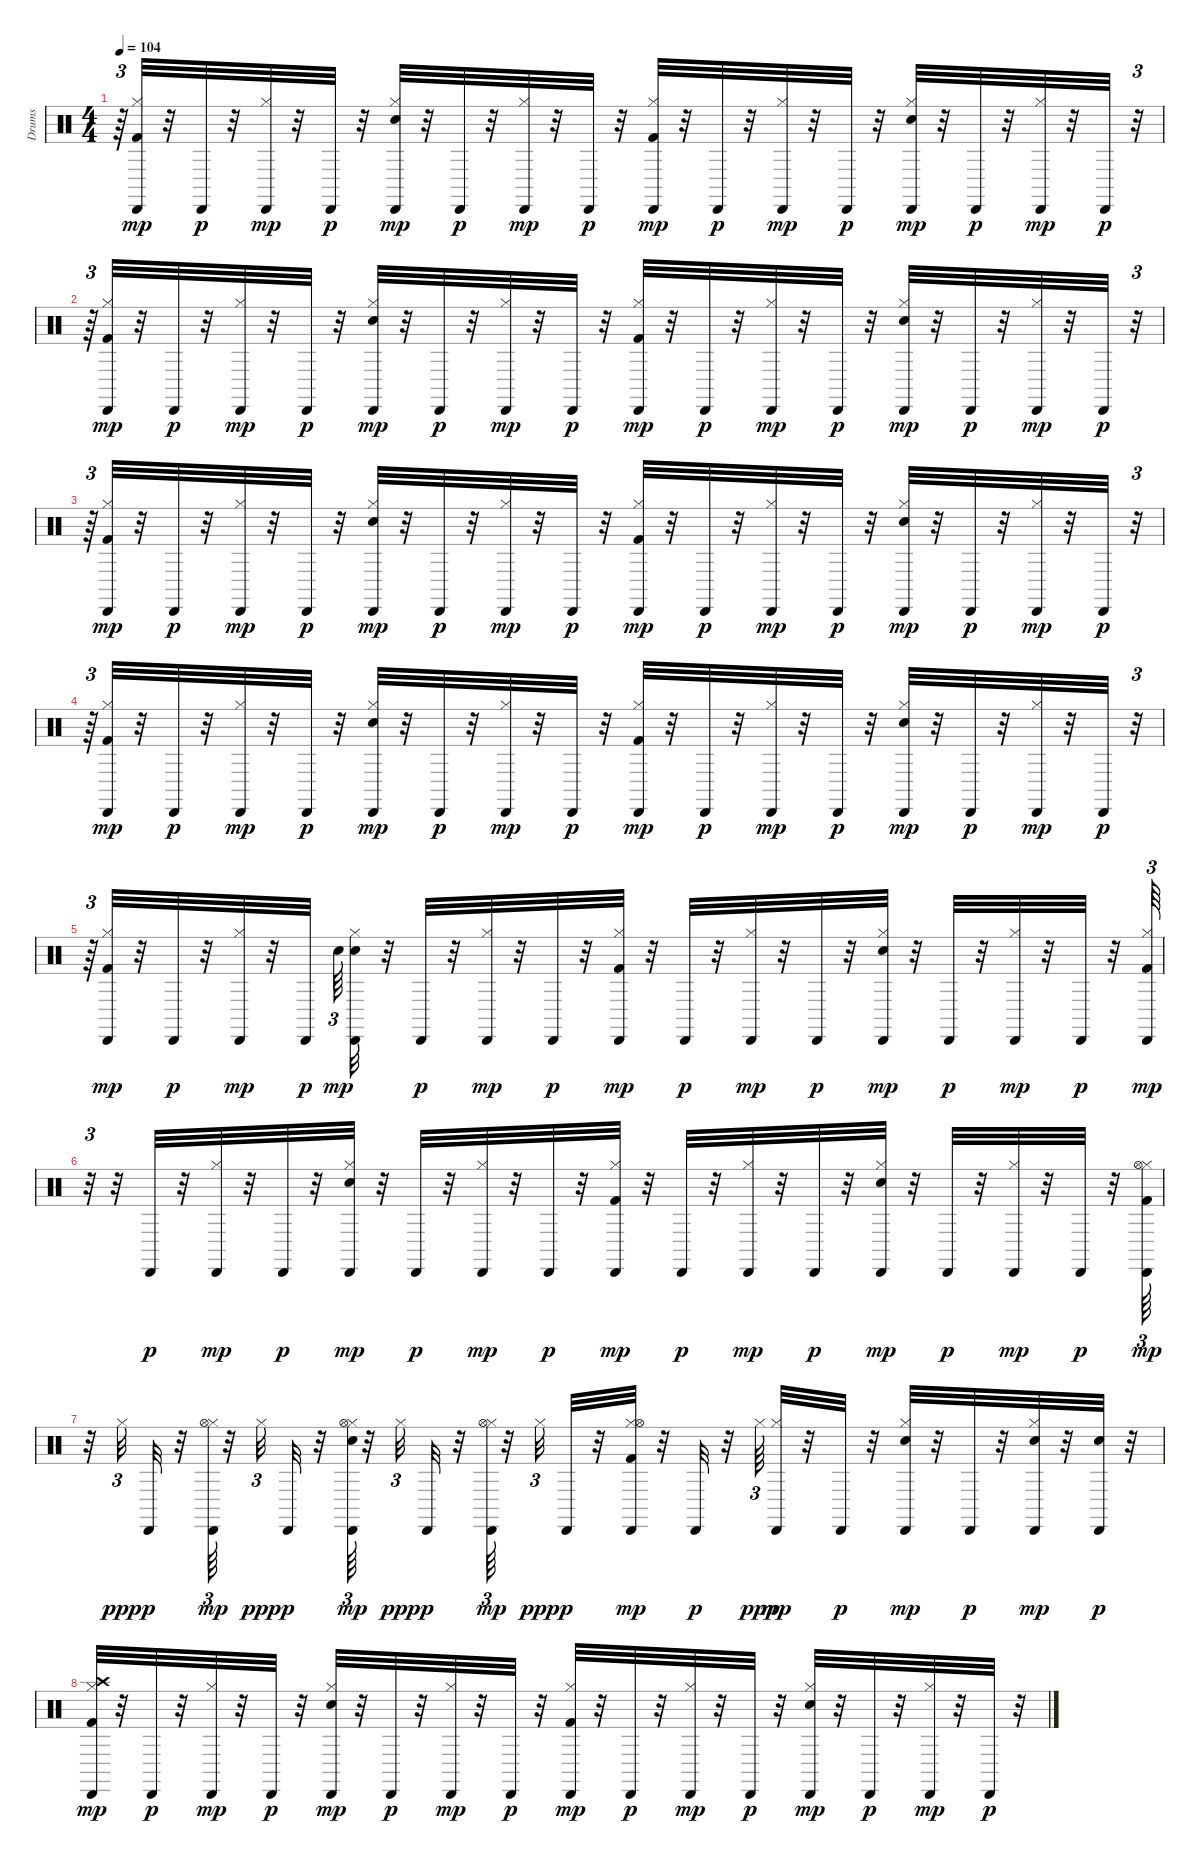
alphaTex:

\track ("Drums               " "Drums     ") {instrument percussion}
\staff {score}
\articulation defaults
\ts (4 4)
\tempo 104
\clef neutral
\ks c
r.64{tu (3 2) dy p} ("Kick (hit) 2" "Hi-Hat (closed)" "Cabasa (hit)").32{dy mp} r.32 "Cabasa (hit)".32{dy p} r.32 ("Hi-Hat (closed)" "Cabasa (hit)").32{dy mp} r.32 "Cabasa (hit)".32{dy p} r.32 ("Snare (hit) 2" "Hi-Hat (closed)" "Cabasa (hit)").32{dy mp} r.32 "Cabasa (hit)".32{dy p} r.32 ("Hi-Hat (closed)" "Cabasa (hit)").32{dy mp} r.32 "Cabasa (hit)".32{dy p} r.32 ("Kick (hit) 2" "Hi-Hat (closed)" "Cabasa (hit)").32{dy mp} r.32 "Cabasa (hit)".32{dy p} r.32 ("Hi-Hat (closed)" "Cabasa (hit)").32{dy mp} r.32 "Cabasa (hit)".32{dy p} r.32 ("Snare (hit) 2" "Hi-Hat (closed)" "Cabasa (hit)").32{dy mp} r.32 "Cabasa (hit)".32{dy p} r.32 ("Hi-Hat (closed)" "Cabasa (hit)").32{dy mp} r.32 "Cabasa (hit)".32{dy p} r.32{tu (3 2)} |
r.64{tu (3 2)} ("Kick (hit) 2" "Hi-Hat (closed)" "Cabasa (hit)").32{dy mp} r.32 "Cabasa (hit)".32{dy p} r.32 ("Hi-Hat (closed)" "Cabasa (hit)").32{dy mp} r.32 "Cabasa (hit)".32{dy p} r.32 ("Snare (hit) 2" "Hi-Hat (closed)" "Cabasa (hit)").32{dy mp} r.32 "Cabasa (hit)".32{dy p} r.32 ("Hi-Hat (closed)" "Cabasa (hit)").32{dy mp} r.32 "Cabasa (hit)".32{dy p} r.32 ("Kick (hit) 2" "Hi-Hat (closed)" "Cabasa (hit)").32{dy mp} r.32 "Cabasa (hit)".32{dy p} r.32 ("Hi-Hat (closed)" "Cabasa (hit)").32{dy mp} r.32 "Cabasa (hit)".32{dy p} r.32 ("Snare (hit) 2" "Hi-Hat (closed)" "Cabasa (hit)").32{dy mp} r.32 "Cabasa (hit)".32{dy p} r.32 ("Hi-Hat (closed)" "Cabasa (hit)").32{dy mp} r.32 "Cabasa (hit)".32{dy p} r.32{tu (3 2)} |
r.64{tu (3 2)} ("Kick (hit) 2" "Hi-Hat (closed)" "Cabasa (hit)").32{dy mp} r.32 "Cabasa (hit)".32{dy p} r.32 ("Hi-Hat (closed)" "Cabasa (hit)").32{dy mp} r.32 "Cabasa (hit)".32{dy p} r.32 ("Snare (hit) 2" "Hi-Hat (closed)" "Cabasa (hit)").32{dy mp} r.32 "Cabasa (hit)".32{dy p} r.32 ("Hi-Hat (closed)" "Cabasa (hit)").32{dy mp} r.32 "Cabasa (hit)".32{dy p} r.32 ("Kick (hit) 2" "Hi-Hat (closed)" "Cabasa (hit)").32{dy mp} r.32 "Cabasa (hit)".32{dy p} r.32 ("Hi-Hat (closed)" "Cabasa (hit)").32{dy mp} r.32 "Cabasa (hit)".32{dy p} r.32 ("Snare (hit) 2" "Hi-Hat (closed)" "Cabasa (hit)").32{dy mp} r.32 "Cabasa (hit)".32{dy p} r.32 ("Hi-Hat (closed)" "Cabasa (hit)").32{dy mp} r.32 "Cabasa (hit)".32{dy p} r.32{tu (3 2)} |
r.64{tu (3 2)} ("Kick (hit) 2" "Hi-Hat (closed)" "Cabasa (hit)").32{dy mp} r.32 "Cabasa (hit)".32{dy p} r.32 ("Hi-Hat (closed)" "Cabasa (hit)").32{dy mp} r.32 "Cabasa (hit)".32{dy p} r.32 ("Snare (hit) 2" "Hi-Hat (closed)" "Cabasa (hit)").32{dy mp} r.32 "Cabasa (hit)".32{dy p} r.32 ("Hi-Hat (closed)" "Cabasa (hit)").32{dy mp} r.32 "Cabasa (hit)".32{dy p} r.32 ("Kick (hit) 2" "Hi-Hat (closed)" "Cabasa (hit)").32{dy mp} r.32 "Cabasa (hit)".32{dy p} r.32 ("Hi-Hat (closed)" "Cabasa (hit)").32{dy mp} r.32 "Cabasa (hit)".32{dy p} r.32 ("Snare (hit) 2" "Hi-Hat (closed)" "Cabasa (hit)").32{dy mp} r.32 "Cabasa (hit)".32{dy p} r.32 ("Hi-Hat (closed)" "Cabasa (hit)").32{dy mp} r.32 "Cabasa (hit)".32{dy p} r.32{tu (3 2)} |
r.64{tu (3 2)} ("Kick (hit) 2" "Hi-Hat (closed)" "Cabasa (hit)").32{dy mp} r.32 "Cabasa (hit)".32{dy p} r.32 ("Hi-Hat (closed)" "Cabasa (hit)").32{dy mp} r.32 "Cabasa (hit)".32{dy p} "Snare (hit)".64{tu (3 2) dy mp} ("Snare (hit) 2" "Hi-Hat (closed)" "Cabasa (hit)").32 r.32 "Cabasa (hit)".32{dy p} r.32 ("Hi-Hat (closed)" "Cabasa (hit)").32{dy mp} r.32 "Cabasa (hit)".32{dy p} r.32 ("Kick (hit) 2" "Hi-Hat (closed)" "Cabasa (hit)").32{dy mp} r.32 "Cabasa (hit)".32{dy p} r.32 ("Hi-Hat (closed)" "Cabasa (hit)").32{dy mp} r.32 "Cabasa (hit)".32{dy p} r.32 ("Snare (hit) 2" "Hi-Hat (closed)" "Cabasa (hit)").32{dy mp} r.32 "Cabasa (hit)".32{dy p} r.32 ("Hi-Hat (closed)" "Cabasa (hit)").32{dy mp} r.32 "Cabasa (hit)".32{dy p} r.32 ("Kick (hit) 2" "Hi-Hat (closed)" "Cabasa (hit)").64{tu (3 2) dy mp} |
r.32{tu (3 2)} r.32 "Cabasa (hit)".32{dy p} r.32 ("Hi-Hat (closed)" "Cabasa (hit)").32{dy mp} r.32 "Cabasa (hit)".32{dy p} r.32 ("Snare (hit) 2" "Hi-Hat (closed)" "Cabasa (hit)").32{dy mp} r.32 "Cabasa (hit)".32{dy p} r.32 ("Hi-Hat (closed)" "Cabasa (hit)").32{dy mp} r.32 "Cabasa (hit)".32{dy p} r.32 ("Kick (hit) 2" "Hi-Hat (closed)" "Cabasa (hit)").32{dy mp} r.32 "Cabasa (hit)".32{dy p} r.32 ("Hi-Hat (closed)" "Cabasa (hit)").32{dy mp} r.32 "Cabasa (hit)".32{dy p} r.32 ("Snare (hit) 2" "Hi-Hat (closed)" "Cabasa (hit)").32{dy mp} r.32 "Cabasa (hit)".32{dy p} r.32 ("Hi-Hat (closed)" "Cabasa (hit)").32{dy mp} r.32 "Cabasa (hit)".32{dy p} r.32 ("Kick (hit) 2" "Hi-Hat (closed)" "Hi-Hat (open)" "Cabasa (hit)").64{tu (3 2) dy mp} |
r.32 "Hi-Hat (closed)".32{tu (3 2) dy ppp} "Cabasa (hit)".32{dy p} r.32 ("Hi-Hat (closed)" "Hi-Hat (open)" "Cabasa (hit)").64{tu (3 2) dy mp} r.32 "Hi-Hat (closed)".32{tu (3 2) dy ppp} "Cabasa (hit)".32{dy p} r.32 ("Snare (hit) 2" "Hi-Hat (closed)" "Hi-Hat (open)" "Cabasa (hit)").64{tu (3 2) dy mp} r.32 "Hi-Hat (closed)".32{tu (3 2) dy ppp} "Cabasa (hit)".32{dy p} r.32 ("Hi-Hat (closed)" "Hi-Hat (open)" "Cabasa (hit)").64{tu (3 2) dy mp} r.32 "Hi-Hat (closed)".32{tu (3 2) dy ppp} "Cabasa (hit)".32{dy p} r.32 ("Kick (hit) 2" "Hi-Hat (closed)" "Hi-Hat (open)" "Cabasa (hit)").32{dy mp} r.32 "Cabasa (hit)".32{dy p} r.32 "Hi-Hat (closed)".64{tu (3 2) dy ppp} ("Hi-Hat (closed)" "Cabasa (hit)").32{dy mp} r.32 "Cabasa (hit)".32{dy p} r.32 ("Snare (hit) 2" "Hi-Hat (closed)" "Cabasa (hit)").32{dy mp} r.32 "Cabasa (hit)".32{dy p} r.32 ("Snare (hit) 2" "Hi-Hat (closed)" "Cabasa (hit)").32{dy mp} r.32 ("Snare (hit) 2" "Cabasa (hit)").32{dy p} r.32 |
("Kick (hit) 2" "Hi-Hat (closed)" "Crash high (hit)" "Cabasa (hit)").32{dy mp} r.32 "Cabasa (hit)".32{dy p} r.32 ("Hi-Hat (closed)" "Cabasa (hit)").32{dy mp} r.32 "Cabasa (hit)".32{dy p} r.32 ("Snare (hit) 2" "Hi-Hat (closed)" "Cabasa (hit)").32{dy mp} r.32 "Cabasa (hit)".32{dy p} r.32 ("Hi-Hat (closed)" "Cabasa (hit)").32{dy mp} r.32 "Cabasa (hit)".32{dy p} r.32 ("Kick (hit) 2" "Hi-Hat (closed)" "Cabasa (hit)").32{dy mp} r.32 "Cabasa (hit)".32{dy p} r.32 ("Hi-Hat (closed)" "Cabasa (hit)").32{dy mp} r.32 "Cabasa (hit)".32{dy p} r.32 ("Snare (hit) 2" "Hi-Hat (closed)" "Cabasa (hit)").32{dy mp} r.32 "Cabasa (hit)".32{dy p} r.32 ("Hi-Hat (closed)" "Cabasa (hit)").32{dy mp} r.32 "Cabasa (hit)".32{dy p} r.32
